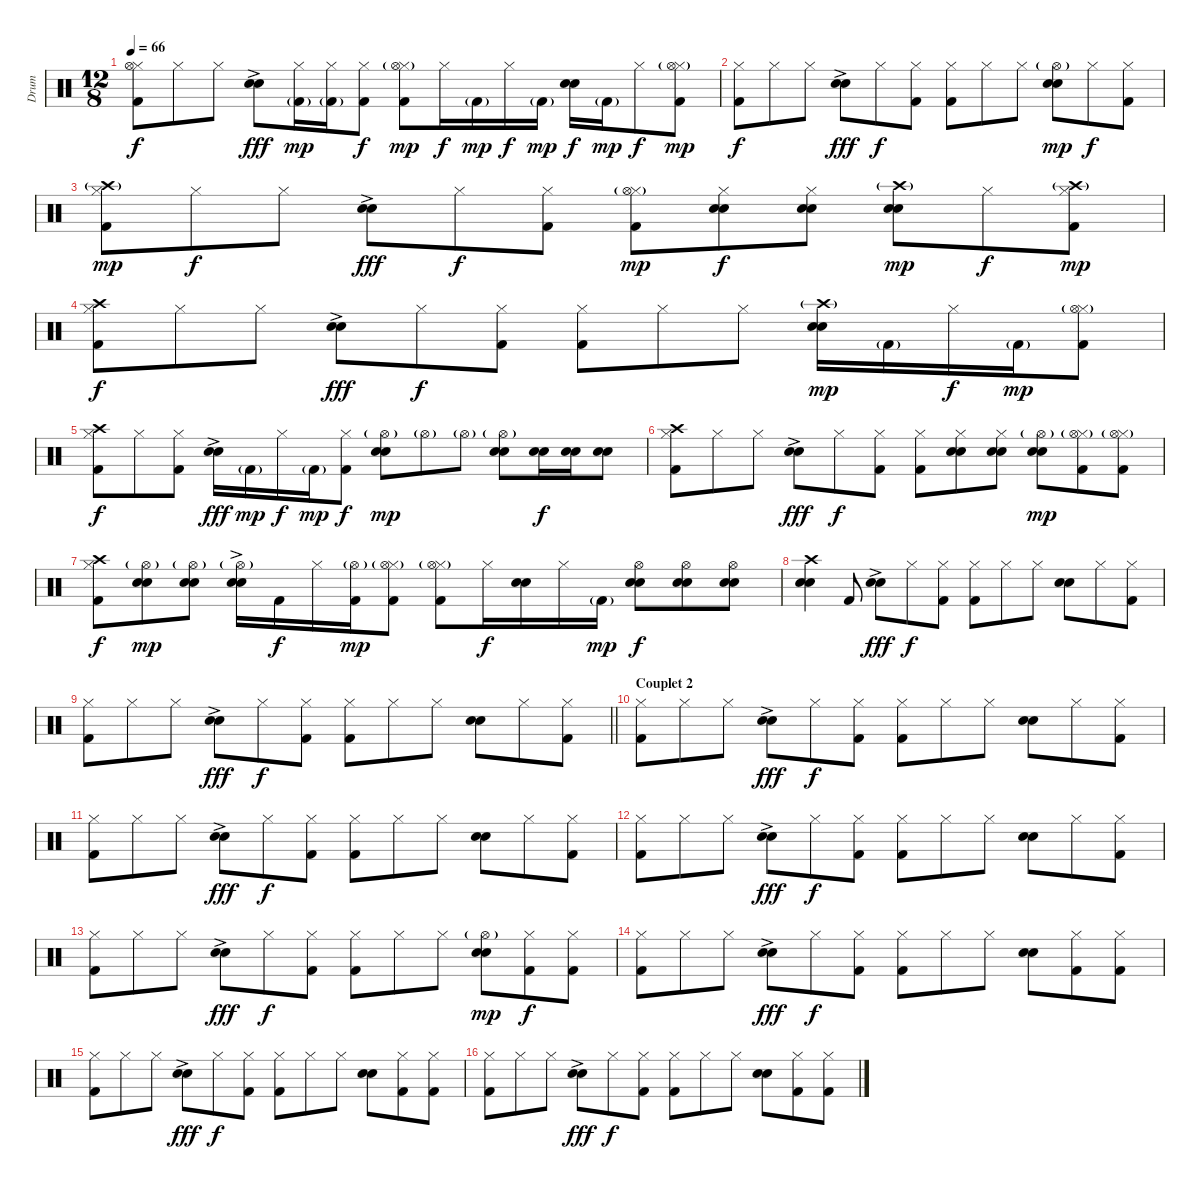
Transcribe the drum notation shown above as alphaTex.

\track ("Drum" "Drum") {instrument percussion}
\staff {score}
\articulation defaults
\ts (12 8)
\tempo 66
\clef neutral
\ks c
("Hi-Hat (closed)" "Kick (hit) 2" "Hi-Hat (open)").8{dy f} "Hi-Hat (closed)".8 "Hi-Hat (closed)".8 ("Electric Snare (hit)"{ac} "Hand Clap (hit)").8{dy fff} ("Hi-Hat (closed)" "Kick (hit) 2"{g}).16{dy mp} ("Hi-Hat (closed)" "Kick (hit) 2"{g}).16 ("Hi-Hat (closed)" "Kick (hit) 2").8{dy f} ("Hi-Hat (closed)" "Kick (hit) 2" "Hi-Hat (open)"{g}).8{dy mp} "Hi-Hat (closed)".16{dy f} "Kick (hit) 2"{g}.16{dy mp} "Hi-Hat (closed)".16{dy f} "Kick (hit) 2"{g}.16{dy mp} ("Electric Snare (hit)" "Hand Clap (hit)").16{dy f} "Kick (hit) 2"{g}.16{dy mp} "Hi-Hat (closed)".8{dy f} ("Hi-Hat (closed)" "Kick (hit) 2" "Hi-Hat (open)"{g}).8{dy mp} |
("Hi-Hat (closed)" "Kick (hit) 2").8{dy f} "Hi-Hat (closed)".8 "Hi-Hat (closed)".8 ("Electric Snare (hit)"{ac} "Hand Clap (hit)").8{dy fff} "Hi-Hat (closed)".8{dy f} ("Hi-Hat (closed)" "Kick (hit) 2").8 ("Hi-Hat (closed)" "Kick (hit) 2").8 "Hi-Hat (closed)".8 "Hi-Hat (closed)".8 ("Electric Snare (hit)" "Hand Clap (hit)" "Hi-Hat (open)"{g}).8{dy mp} "Hi-Hat (closed)".8{dy f} ("Hi-Hat (closed)" "Kick (hit) 2").8 |
("Hi-Hat (closed)" "Kick (hit) 2" "Crash high (hit)"{g}).8{dy mp} "Hi-Hat (closed)".8{dy f} "Hi-Hat (closed)".8 ("Electric Snare (hit)"{ac} "Hand Clap (hit)").8{dy fff} "Hi-Hat (closed)".8{dy f} ("Hi-Hat (closed)" "Kick (hit) 2").8 ("Hi-Hat (closed)" "Kick (hit) 2" "Hi-Hat (open)"{g}).8{dy mp} ("Hi-Hat (closed)" "Electric Snare (hit)" "Hand Clap (hit)").8{dy f} ("Hi-Hat (closed)" "Electric Snare (hit)" "Hand Clap (hit)").8 ("Electric Snare (hit)" "Hand Clap (hit)" "Crash high (hit)"{g}).8{dy mp} "Hi-Hat (closed)".8{dy f} ("Hi-Hat (closed)" "Kick (hit) 2" "Crash high (hit)"{g}).8{dy mp} |
("Hi-Hat (closed)" "Kick (hit) 2" "Crash high (hit)").8{dy f} "Hi-Hat (closed)".8 "Hi-Hat (closed)".8 ("Electric Snare (hit)"{ac} "Hand Clap (hit)").8{dy fff} "Hi-Hat (closed)".8{dy f} ("Hi-Hat (closed)" "Kick (hit) 2").8 ("Hi-Hat (closed)" "Kick (hit) 2").8 "Hi-Hat (closed)".8 "Hi-Hat (closed)".8 ("Electric Snare (hit)" "Hand Clap (hit)" "Crash high (hit)"{g}).16{dy mp} "Kick (hit) 2"{g}.16 "Hi-Hat (closed)".16{dy f} "Kick (hit) 2"{g}.16{dy mp} ("Hi-Hat (closed)" "Kick (hit) 2" "Hi-Hat (open)"{g}).8 |
("Hi-Hat (closed)" "Kick (hit) 2" "Crash high (hit)").8{dy f} "Hi-Hat (closed)".8 ("Hi-Hat (closed)" "Kick (hit) 2").8 ("Electric Snare (hit)"{ac} "Hand Clap (hit)").16{dy fff} "Kick (hit) 2"{g}.16{dy mp} "Hi-Hat (closed)".16{dy f} "Kick (hit) 2"{g}.16{dy mp} ("Hi-Hat (closed)" "Kick (hit) 2").8{dy f} ("Electric Snare (hit)" "Hand Clap (hit)" "Hi-Hat (open)"{g}).8{dy mp} "Hi-Hat (open)"{g}.8 "Hi-Hat (open)"{g}.8 ("Electric Snare (hit)" "Hand Clap (hit)" "Hi-Hat (open)"{g}).8 ("Electric Snare (hit)" "Hand Clap (hit)").16{dy f} ("Electric Snare (hit)" "Hand Clap (hit)").16 ("Electric Snare (hit)" "Hand Clap (hit)").8 |
("Hi-Hat (closed)" "Kick (hit) 2" "Crash high (hit)").8 "Hi-Hat (closed)".8 "Hi-Hat (closed)".8 ("Electric Snare (hit)"{ac} "Hand Clap (hit)").8{dy fff} "Hi-Hat (closed)".8{dy f} ("Hi-Hat (closed)" "Kick (hit) 2").8 ("Hi-Hat (closed)" "Kick (hit) 2").8 ("Hi-Hat (closed)" "Electric Snare (hit)" "Hand Clap (hit)").8 ("Hi-Hat (closed)" "Electric Snare (hit)" "Hand Clap (hit)").8 ("Electric Snare (hit)" "Hand Clap (hit)" "Hi-Hat (open)"{g}).8{dy mp} ("Hi-Hat (closed)" "Kick (hit) 2" "Hi-Hat (open)"{g}).8 ("Hi-Hat (closed)" "Kick (hit) 2" "Hi-Hat (open)"{g}).8 |
("Hi-Hat (closed)" "Kick (hit) 2" "Crash high (hit)").8{dy f} ("Electric Snare (hit)" "Hand Clap (hit)" "Hi-Hat (open)"{g}).8{dy mp} ("Electric Snare (hit)" "Hand Clap (hit)" "Hi-Hat (open)"{g}).8 ("Electric Snare (hit)"{ac} "Hand Clap (hit)" "Hi-Hat (open)"{g}).16 "Kick (hit) 2".16{dy f} "Hi-Hat (closed)".16 ("Kick (hit) 2" "Hi-Hat (open)"{g}).16{dy mp} ("Hi-Hat (closed)" "Kick (hit) 2" "Hi-Hat (open)"{g}).8 ("Hi-Hat (closed)" "Kick (hit) 2" "Hi-Hat (open)"{g}).8 "Hi-Hat (closed)".16{dy f} ("Electric Snare (hit)" "Hand Clap (hit)").16 "Hi-Hat (closed)".16 "Kick (hit) 2"{g}.16{dy mp} ("Electric Snare (hit)" "Hand Clap (hit)" "Hi-Hat (open)").8{dy f} ("Electric Snare (hit)" "Hand Clap (hit)" "Hi-Hat (open)").8 ("Electric Snare (hit)" "Hand Clap (hit)" "Hi-Hat (open)").8 |
("Electric Snare (hit)" "Hand Clap (hit)" "Crash high (hit)").4 "Kick (hit) 2".8 ("Electric Snare (hit)"{ac} "Hand Clap (hit)").8{dy fff} "Hi-Hat (closed)".8{dy f} ("Hi-Hat (closed)" "Kick (hit) 2").8 ("Hi-Hat (closed)" "Kick (hit) 2").8 "Hi-Hat (closed)".8 "Hi-Hat (closed)".8 ("Electric Snare (hit)" "Hand Clap (hit)").8 "Hi-Hat (closed)".8 ("Hi-Hat (closed)" "Kick (hit) 2").8 |
\barLineRight lightlight
("Hi-Hat (closed)" "Kick (hit) 2").8 "Hi-Hat (closed)".8 "Hi-Hat (closed)".8 ("Electric Snare (hit)"{ac} "Hand Clap (hit)").8{dy fff} "Hi-Hat (closed)".8{dy f} ("Hi-Hat (closed)" "Kick (hit) 2").8 ("Hi-Hat (closed)" "Kick (hit) 2").8 "Hi-Hat (closed)".8 "Hi-Hat (closed)".8 ("Electric Snare (hit)" "Hand Clap (hit)").8 "Hi-Hat (closed)".8 ("Hi-Hat (closed)" "Kick (hit) 2").8 |
\section ("" "Couplet 2")
("Hi-Hat (closed)" "Kick (hit) 2").8 "Hi-Hat (closed)".8 "Hi-Hat (closed)".8 ("Electric Snare (hit)"{ac} "Hand Clap (hit)").8{dy fff} "Hi-Hat (closed)".8{dy f} ("Hi-Hat (closed)" "Kick (hit) 2").8 ("Hi-Hat (closed)" "Kick (hit) 2").8 "Hi-Hat (closed)".8 "Hi-Hat (closed)".8 ("Electric Snare (hit)" "Hand Clap (hit)").8 "Hi-Hat (closed)".8 ("Hi-Hat (closed)" "Kick (hit) 2").8 |
("Hi-Hat (closed)" "Kick (hit) 2").8 "Hi-Hat (closed)".8 "Hi-Hat (closed)".8 ("Electric Snare (hit)"{ac} "Hand Clap (hit)").8{dy fff} "Hi-Hat (closed)".8{dy f} ("Hi-Hat (closed)" "Kick (hit) 2").8 ("Hi-Hat (closed)" "Kick (hit) 2").8 "Hi-Hat (closed)".8 "Hi-Hat (closed)".8 ("Electric Snare (hit)" "Hand Clap (hit)").8 "Hi-Hat (closed)".8 ("Hi-Hat (closed)" "Kick (hit) 2").8 |
("Hi-Hat (closed)" "Kick (hit) 2").8 "Hi-Hat (closed)".8 "Hi-Hat (closed)".8 ("Electric Snare (hit)"{ac} "Hand Clap (hit)").8{dy fff} "Hi-Hat (closed)".8{dy f} ("Hi-Hat (closed)" "Kick (hit) 2").8 ("Hi-Hat (closed)" "Kick (hit) 2").8 "Hi-Hat (closed)".8 "Hi-Hat (closed)".8 ("Electric Snare (hit)" "Hand Clap (hit)").8 "Hi-Hat (closed)".8 ("Hi-Hat (closed)" "Kick (hit) 2").8 |
("Hi-Hat (closed)" "Kick (hit) 2").8 "Hi-Hat (closed)".8 "Hi-Hat (closed)".8 ("Electric Snare (hit)"{ac} "Hand Clap (hit)").8{dy fff} "Hi-Hat (closed)".8{dy f} ("Hi-Hat (closed)" "Kick (hit) 2").8 ("Hi-Hat (closed)" "Kick (hit) 2").8 "Hi-Hat (closed)".8 "Hi-Hat (closed)".8 ("Electric Snare (hit)" "Hand Clap (hit)" "Hi-Hat (open)"{g}).8{dy mp} ("Hi-Hat (closed)" "Kick (hit) 2").8{dy f} ("Hi-Hat (closed)" "Kick (hit) 2").8 |
("Hi-Hat (closed)" "Kick (hit) 2").8 "Hi-Hat (closed)".8 "Hi-Hat (closed)".8 ("Electric Snare (hit)"{ac} "Hand Clap (hit)").8{dy fff} "Hi-Hat (closed)".8{dy f} ("Hi-Hat (closed)" "Kick (hit) 2").8 ("Hi-Hat (closed)" "Kick (hit) 2").8 "Hi-Hat (closed)".8 "Hi-Hat (closed)".8 ("Electric Snare (hit)" "Hand Clap (hit)").8 ("Hi-Hat (closed)" "Kick (hit) 2").8 ("Hi-Hat (closed)" "Kick (hit) 2").8 |
("Hi-Hat (closed)" "Kick (hit) 2").8 "Hi-Hat (closed)".8 "Hi-Hat (closed)".8 ("Electric Snare (hit)"{ac} "Hand Clap (hit)").8{dy fff} "Hi-Hat (closed)".8{dy f} ("Hi-Hat (closed)" "Kick (hit) 2").8 ("Hi-Hat (closed)" "Kick (hit) 2").8 "Hi-Hat (closed)".8 "Hi-Hat (closed)".8 ("Electric Snare (hit)" "Hand Clap (hit)").8 ("Hi-Hat (closed)" "Kick (hit) 2").8 ("Hi-Hat (closed)" "Kick (hit) 2").8 |
("Hi-Hat (closed)" "Kick (hit) 2").8 "Hi-Hat (closed)".8 "Hi-Hat (closed)".8 ("Electric Snare (hit)"{ac} "Hand Clap (hit)").8{dy fff} "Hi-Hat (closed)".8{dy f} ("Hi-Hat (closed)" "Kick (hit) 2").8 ("Hi-Hat (closed)" "Kick (hit) 2").8 "Hi-Hat (closed)".8 "Hi-Hat (closed)".8 ("Electric Snare (hit)" "Hand Clap (hit)").8 ("Hi-Hat (closed)" "Kick (hit) 2").8 ("Hi-Hat (closed)" "Kick (hit) 2").8
